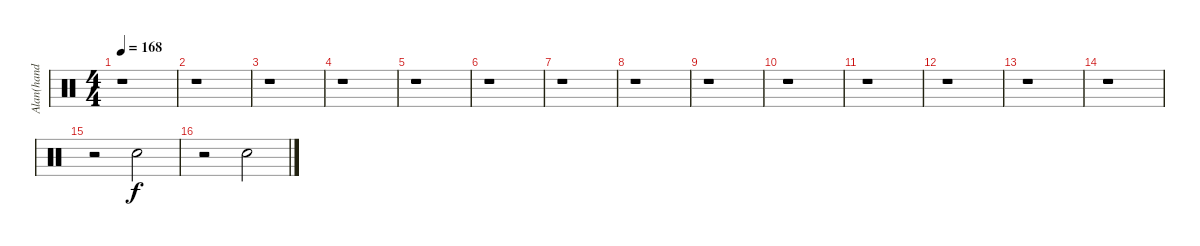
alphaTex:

\track ("Alan(hand clap)" "Alan(hand ") {instrument percussion}
\staff {score}
\articulation defaults
\ts (4 4)
\tempo 168
\clef neutral
\ks c
r.1{dy f} |
r.1 |
r.1 |
r.1 |
r.1 |
r.1 |
r.1 |
r.1 |
r.1 |
r.1 |
r.1 |
r.1 |
r.1 |
r.1 |
r.2 "Hand Clap (hit)".2 |
r.2 "Hand Clap (hit)".2
